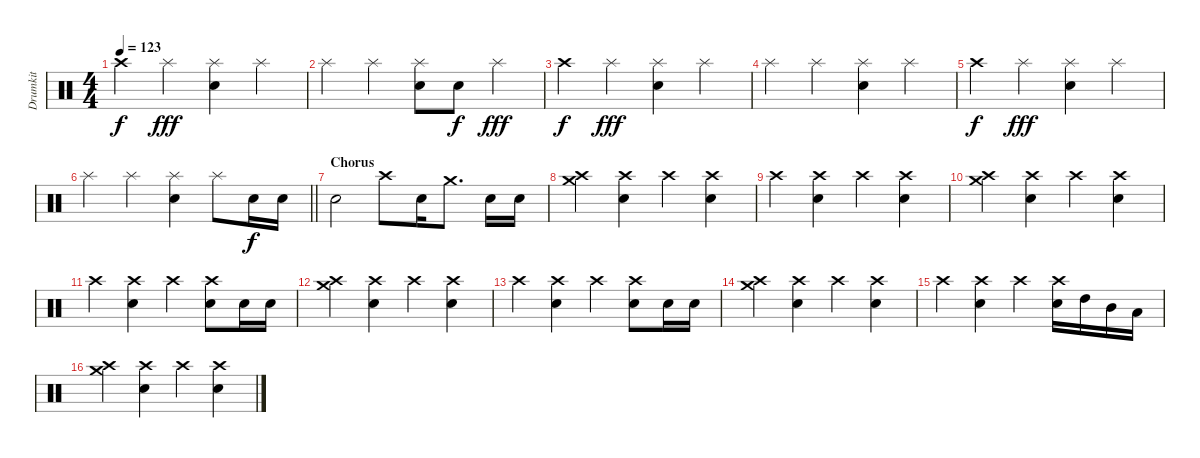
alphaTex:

\track ("Drumkit" "Drumkit") {instrument percussion}
\staff {score}
\articulation defaults
\ts (4 4)
\tempo 123
\clef neutral
\ks c "Crash high (hit)".4{dy f} "Splash (hit)".4{dy fff}
("Splash (hit)" "Electric Snare (hit)").4 "Splash (hit)".4 |
"Splash (hit)".4 "Splash (hit)".4 ("Splash (hit)" "Electric Snare (hit)").8 "Electric Snare (hit)".8{dy f} "Splash (hit)".4{dy fff} |
"Crash high (hit)".4{dy f} "Splash (hit)".4{dy fff} ("Splash (hit)" "Electric Snare (hit)").4 "Splash (hit)".4 |
"Splash (hit)".4 "Splash (hit)".4 ("Splash (hit)" "Electric Snare (hit)").4 "Splash (hit)".4 |
"Crash high (hit)".4{dy f} "Splash (hit)".4{dy fff} ("Splash (hit)" "Electric Snare (hit)").4 "Splash (hit)".4 |
\barLineRight lightlight "Splash (hit)".4 "Splash (hit)".4
("Splash (hit)" "Electric Snare (hit)").4 "Splash (hit)".8 "Electric Snare (hit)".16{dy f} "Electric Snare (hit)".16 |
\section ("" "Chorus")
"Electric Snare (hit)".2 "Crash high (hit)".8 "Electric Snare (hit)".16 "Crash medium (hit)".8{d} "Electric Snare (hit)".16 "Electric Snare (hit)".16 |
("Crash medium (hit)" "Crash high (hit)").4 ("Crash high (hit)" "Electric Snare (hit)").4 "Crash high (hit)".4 ("Crash high (hit)" "Electric Snare (hit)").4 |
"Crash high (hit)".4 ("Crash high (hit)" "Electric Snare (hit)").4 "Crash high (hit)".4 ("Crash high (hit)" "Electric Snare (hit)").4 |
("Crash medium (hit)" "Crash high (hit)").4 ("Crash high (hit)" "Electric Snare (hit)").4 "Crash high (hit)".4 ("Crash high (hit)" "Electric Snare (hit)").4 |
"Crash high (hit)".4 ("Crash high (hit)" "Electric Snare (hit)").4 "Crash high (hit)".4 ("Crash high (hit)" "Electric Snare (hit)").8 "Electric Snare (hit)".16 "Electric Snare (hit)".16 |
("Crash medium (hit)" "Crash high (hit)").4 ("Crash high (hit)" "Electric Snare (hit)").4 "Crash high (hit)".4 ("Crash high (hit)" "Electric Snare (hit)").4 |
"Crash high (hit)".4 ("Crash high (hit)" "Electric Snare (hit)").4 "Crash high (hit)".4 ("Crash high (hit)" "Electric Snare (hit)").8 "Electric Snare (hit)".16 "Electric Snare (hit)".16 |
("Crash medium (hit)" "Crash high (hit)").4 ("Crash high (hit)" "Electric Snare (hit)").4 "Crash high (hit)".4 ("Crash high (hit)" "Electric Snare (hit)").4 |
"Crash high (hit)".4 ("Crash high (hit)" "Electric Snare (hit)").4 "Crash high (hit)".4 ("Crash high (hit)" "Electric Snare (hit)").16 "High Tom (hit)".16 "Mid Tom (hit)".16 "Low Tom (hit)".16 |
("Crash medium (hit)" "Crash high (hit)").4 ("Crash high (hit)" "Electric Snare (hit)").4 "Crash high (hit)".4 ("Crash high (hit)" "Electric Snare (hit)").4
